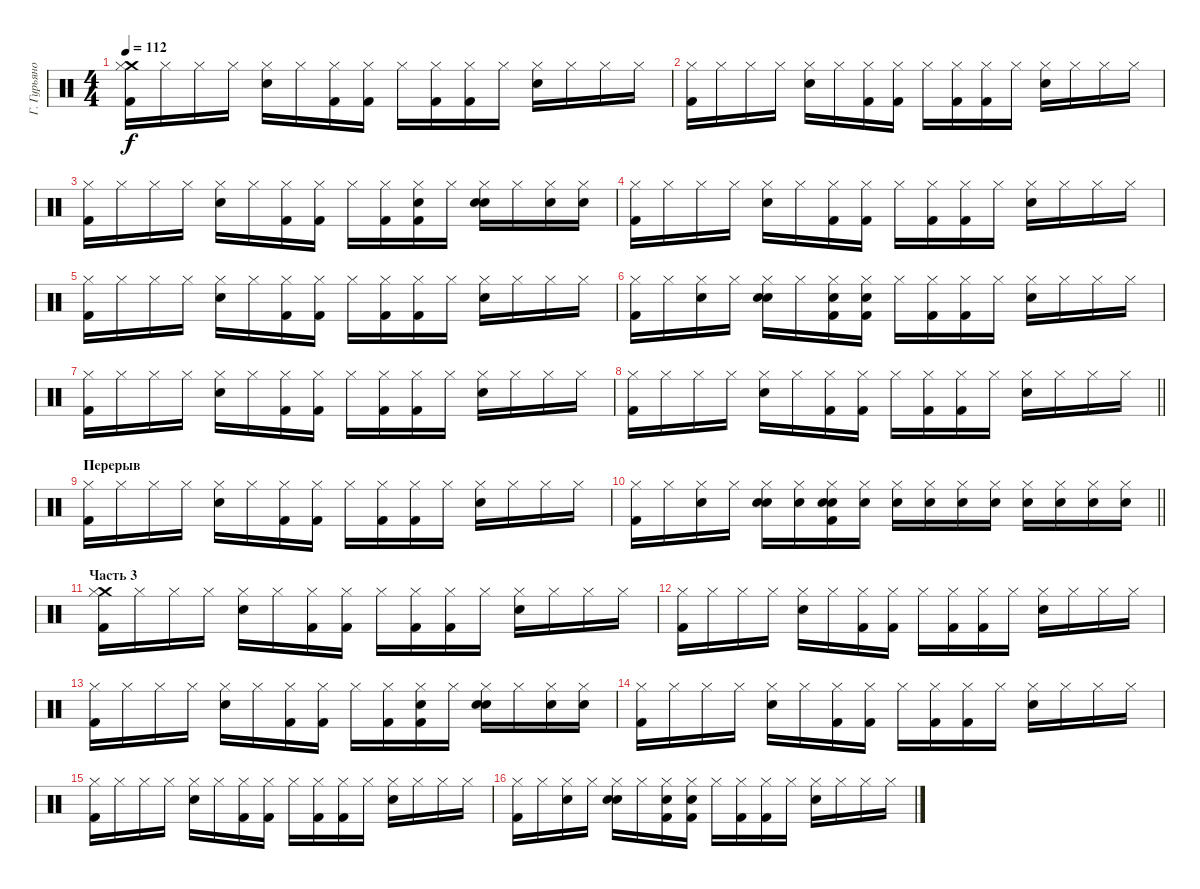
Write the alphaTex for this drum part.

\track ("Г. Гурьянов" "Г. Гурьяно") {instrument percussion}
\staff {score}
\articulation defaults
\ts (4 4)
\tempo 112
\clef neutral
\ks c
("Kick (hit) 2" "Crash medium (hit)" "Hi-Hat (closed)").16{dy f} "Hi-Hat (closed)".16 "Hi-Hat (closed)".16 "Hi-Hat (closed)".16 ("Snare (hit) 2" "Hi-Hat (closed)").16 "Hi-Hat (closed)".16 ("Kick (hit) 2" "Hi-Hat (closed)").16 ("Kick (hit) 2" "Hi-Hat (closed)").16 "Hi-Hat (closed)".16 ("Kick (hit) 2" "Hi-Hat (closed)").16 ("Kick (hit) 2" "Hi-Hat (closed)").16 "Hi-Hat (closed)".16 ("Snare (hit) 2" "Hi-Hat (closed)").16 "Hi-Hat (closed)".16 "Hi-Hat (closed)".16 "Hi-Hat (closed)".16 |
("Kick (hit) 2" "Hi-Hat (closed)").16 "Hi-Hat (closed)".16 "Hi-Hat (closed)".16 "Hi-Hat (closed)".16 ("Snare (hit) 2" "Hi-Hat (closed)").16 "Hi-Hat (closed)".16 ("Kick (hit) 2" "Hi-Hat (closed)").16 ("Kick (hit) 2" "Hi-Hat (closed)").16 "Hi-Hat (closed)".16 ("Kick (hit) 2" "Hi-Hat (closed)").16 ("Kick (hit) 2" "Hi-Hat (closed)").16 "Hi-Hat (closed)".16 ("Snare (hit) 2" "Hi-Hat (closed)").16 "Hi-Hat (closed)".16 "Hi-Hat (closed)".16 "Hi-Hat (closed)".16 |
("Kick (hit) 2" "Hi-Hat (closed)").16 "Hi-Hat (closed)".16 "Hi-Hat (closed)".16 "Hi-Hat (closed)".16 ("Snare (hit) 2" "Hi-Hat (closed)").16 "Hi-Hat (closed)".16 ("Kick (hit) 2" "Hi-Hat (closed)").16 ("Kick (hit) 2" "Hi-Hat (closed)").16 "Hi-Hat (closed)".16 ("Kick (hit) 2" "Hi-Hat (closed)").16 ("Kick (hit) 2" "Hand Clap (hit)" "Hi-Hat (closed)").16 "Hi-Hat (closed)".16 ("Snare (hit) 2" "Hand Clap (hit)" "Hi-Hat (closed)").16 "Hi-Hat (closed)".16 ("Hand Clap (hit)" "Hi-Hat (closed)").16 ("Hand Clap (hit)" "Hi-Hat (closed)").16 |
("Kick (hit) 2" "Hi-Hat (closed)").16 "Hi-Hat (closed)".16 "Hi-Hat (closed)".16 "Hi-Hat (closed)".16 ("Snare (hit) 2" "Hi-Hat (closed)").16 "Hi-Hat (closed)".16 ("Kick (hit) 2" "Hi-Hat (closed)").16 ("Kick (hit) 2" "Hi-Hat (closed)").16 "Hi-Hat (closed)".16 ("Kick (hit) 2" "Hi-Hat (closed)").16 ("Kick (hit) 2" "Hi-Hat (closed)").16 "Hi-Hat (closed)".16 ("Snare (hit) 2" "Hi-Hat (closed)").16 "Hi-Hat (closed)".16 "Hi-Hat (closed)".16 "Hi-Hat (closed)".16 |
("Kick (hit) 2" "Hi-Hat (closed)").16 "Hi-Hat (closed)".16 "Hi-Hat (closed)".16 "Hi-Hat (closed)".16 ("Snare (hit) 2" "Hi-Hat (closed)").16 "Hi-Hat (closed)".16 ("Kick (hit) 2" "Hi-Hat (closed)").16 ("Kick (hit) 2" "Hi-Hat (closed)").16 "Hi-Hat (closed)".16 ("Kick (hit) 2" "Hi-Hat (closed)").16 ("Kick (hit) 2" "Hi-Hat (closed)").16 "Hi-Hat (closed)".16 ("Snare (hit) 2" "Hi-Hat (closed)").16 "Hi-Hat (closed)".16 "Hi-Hat (closed)".16 "Hi-Hat (closed)".16 |
("Kick (hit) 2" "Hi-Hat (closed)").16 "Hi-Hat (closed)".16 ("Hand Clap (hit)" "Hi-Hat (closed)").16 "Hi-Hat (closed)".16 ("Snare (hit) 2" "Hand Clap (hit)" "Hi-Hat (closed)").16 "Hi-Hat (closed)".16 ("Kick (hit) 2" "Hand Clap (hit)" "Hi-Hat (closed)").16 ("Kick (hit) 2" "Hand Clap (hit)" "Hi-Hat (closed)").16 "Hi-Hat (closed)".16 ("Kick (hit) 2" "Hi-Hat (closed)").16 ("Kick (hit) 2" "Hi-Hat (closed)").16 "Hi-Hat (closed)".16 ("Snare (hit) 2" "Hi-Hat (closed)").16 "Hi-Hat (closed)".16 "Hi-Hat (closed)".16 "Hi-Hat (closed)".16 |
("Kick (hit) 2" "Hi-Hat (closed)").16 "Hi-Hat (closed)".16 "Hi-Hat (closed)".16 "Hi-Hat (closed)".16 ("Snare (hit) 2" "Hi-Hat (closed)").16 "Hi-Hat (closed)".16 ("Kick (hit) 2" "Hi-Hat (closed)").16 ("Kick (hit) 2" "Hi-Hat (closed)").16 "Hi-Hat (closed)".16 ("Kick (hit) 2" "Hi-Hat (closed)").16 ("Kick (hit) 2" "Hi-Hat (closed)").16 "Hi-Hat (closed)".16 ("Snare (hit) 2" "Hi-Hat (closed)").16 "Hi-Hat (closed)".16 "Hi-Hat (closed)".16 "Hi-Hat (closed)".16 |
\barLineRight lightlight
("Kick (hit) 2" "Hi-Hat (closed)").16 "Hi-Hat (closed)".16 "Hi-Hat (closed)".16 "Hi-Hat (closed)".16 ("Snare (hit) 2" "Hi-Hat (closed)").16 "Hi-Hat (closed)".16 ("Kick (hit) 2" "Hi-Hat (closed)").16 ("Kick (hit) 2" "Hi-Hat (closed)").16 "Hi-Hat (closed)".16 ("Kick (hit) 2" "Hi-Hat (closed)").16 ("Kick (hit) 2" "Hi-Hat (closed)").16 "Hi-Hat (closed)".16 ("Snare (hit) 2" "Hi-Hat (closed)").16 "Hi-Hat (closed)".16 "Hi-Hat (closed)".16 "Hi-Hat (closed)".16 |
\section ("" "Перерыв")
("Kick (hit) 2" "Hi-Hat (closed)").16 "Hi-Hat (closed)".16 "Hi-Hat (closed)".16 "Hi-Hat (closed)".16 ("Snare (hit) 2" "Hi-Hat (closed)").16 "Hi-Hat (closed)".16 ("Kick (hit) 2" "Hi-Hat (closed)").16 ("Kick (hit) 2" "Hi-Hat (closed)").16 "Hi-Hat (closed)".16 ("Kick (hit) 2" "Hi-Hat (closed)").16 ("Kick (hit) 2" "Hi-Hat (closed)").16 "Hi-Hat (closed)".16 ("Snare (hit) 2" "Hi-Hat (closed)").16 "Hi-Hat (closed)".16 "Hi-Hat (closed)".16 "Hi-Hat (closed)".16 |
\barLineRight lightlight
("Kick (hit) 2" "Hi-Hat (closed)").16 "Hi-Hat (closed)".16 ("Hand Clap (hit)" "Hi-Hat (closed)").16 "Hi-Hat (closed)".16 ("Snare (hit) 2" "Hand Clap (hit)" "Hi-Hat (closed)").16 ("Snare (hit) 2" "Hi-Hat (closed)").16 ("Kick (hit) 2" "Snare (hit) 2" "Hand Clap (hit)" "Hi-Hat (closed)").16 ("Hand Clap (hit)" "Hi-Hat (closed)").16 ("Snare (hit) 2" "Hi-Hat (closed)").16 ("Snare (hit) 2" "Hi-Hat (closed)").16 ("Snare (hit) 2" "Hi-Hat (closed)").16 ("Snare (hit) 2" "Hi-Hat (closed)").16 ("Snare (hit) 2" "Hi-Hat (closed)").16 ("Snare (hit) 2" "Hi-Hat (closed)").16 ("Snare (hit) 2" "Hi-Hat (closed)").16 ("Snare (hit) 2" "Hi-Hat (closed)").16 |
\section ("" "Часть 3")
("Kick (hit) 2" "Crash medium (hit)" "Hi-Hat (closed)").16 "Hi-Hat (closed)".16 "Hi-Hat (closed)".16 "Hi-Hat (closed)".16 ("Snare (hit) 2" "Hi-Hat (closed)").16 "Hi-Hat (closed)".16 ("Kick (hit) 2" "Hi-Hat (closed)").16 ("Kick (hit) 2" "Hi-Hat (closed)").16 "Hi-Hat (closed)".16 ("Kick (hit) 2" "Hi-Hat (closed)").16 ("Kick (hit) 2" "Hi-Hat (closed)").16 "Hi-Hat (closed)".16 ("Snare (hit) 2" "Hi-Hat (closed)").16 "Hi-Hat (closed)".16 "Hi-Hat (closed)".16 "Hi-Hat (closed)".16 |
("Kick (hit) 2" "Hi-Hat (closed)").16 "Hi-Hat (closed)".16 "Hi-Hat (closed)".16 "Hi-Hat (closed)".16 ("Snare (hit) 2" "Hi-Hat (closed)").16 "Hi-Hat (closed)".16 ("Kick (hit) 2" "Hi-Hat (closed)").16 ("Kick (hit) 2" "Hi-Hat (closed)").16 "Hi-Hat (closed)".16 ("Kick (hit) 2" "Hi-Hat (closed)").16 ("Kick (hit) 2" "Hi-Hat (closed)").16 "Hi-Hat (closed)".16 ("Snare (hit) 2" "Hi-Hat (closed)").16 "Hi-Hat (closed)".16 "Hi-Hat (closed)".16 "Hi-Hat (closed)".16 |
("Kick (hit) 2" "Hi-Hat (closed)").16 "Hi-Hat (closed)".16 "Hi-Hat (closed)".16 "Hi-Hat (closed)".16 ("Snare (hit) 2" "Hi-Hat (closed)").16 "Hi-Hat (closed)".16 ("Kick (hit) 2" "Hi-Hat (closed)").16 ("Kick (hit) 2" "Hi-Hat (closed)").16 "Hi-Hat (closed)".16 ("Kick (hit) 2" "Hi-Hat (closed)").16 ("Kick (hit) 2" "Hand Clap (hit)" "Hi-Hat (closed)").16 "Hi-Hat (closed)".16 ("Snare (hit) 2" "Hand Clap (hit)" "Hi-Hat (closed)").16 "Hi-Hat (closed)".16 ("Hand Clap (hit)" "Hi-Hat (closed)").16 ("Hand Clap (hit)" "Hi-Hat (closed)").16 |
("Kick (hit) 2" "Hi-Hat (closed)").16 "Hi-Hat (closed)".16 "Hi-Hat (closed)".16 "Hi-Hat (closed)".16 ("Snare (hit) 2" "Hi-Hat (closed)").16 "Hi-Hat (closed)".16 ("Kick (hit) 2" "Hi-Hat (closed)").16 ("Kick (hit) 2" "Hi-Hat (closed)").16 "Hi-Hat (closed)".16 ("Kick (hit) 2" "Hi-Hat (closed)").16 ("Kick (hit) 2" "Hi-Hat (closed)").16 "Hi-Hat (closed)".16 ("Snare (hit) 2" "Hi-Hat (closed)").16 "Hi-Hat (closed)".16 "Hi-Hat (closed)".16 "Hi-Hat (closed)".16 |
("Kick (hit) 2" "Hi-Hat (closed)").16 "Hi-Hat (closed)".16 "Hi-Hat (closed)".16 "Hi-Hat (closed)".16 ("Snare (hit) 2" "Hi-Hat (closed)").16 "Hi-Hat (closed)".16 ("Kick (hit) 2" "Hi-Hat (closed)").16 ("Kick (hit) 2" "Hi-Hat (closed)").16 "Hi-Hat (closed)".16 ("Kick (hit) 2" "Hi-Hat (closed)").16 ("Kick (hit) 2" "Hi-Hat (closed)").16 "Hi-Hat (closed)".16 ("Snare (hit) 2" "Hi-Hat (closed)").16 "Hi-Hat (closed)".16 "Hi-Hat (closed)".16 "Hi-Hat (closed)".16 |
("Kick (hit) 2" "Hi-Hat (closed)").16 "Hi-Hat (closed)".16 ("Hand Clap (hit)" "Hi-Hat (closed)").16 "Hi-Hat (closed)".16 ("Snare (hit) 2" "Hand Clap (hit)" "Hi-Hat (closed)").16 "Hi-Hat (closed)".16 ("Kick (hit) 2" "Hand Clap (hit)" "Hi-Hat (closed)").16 ("Kick (hit) 2" "Hand Clap (hit)" "Hi-Hat (closed)").16 "Hi-Hat (closed)".16 ("Kick (hit) 2" "Hi-Hat (closed)").16 ("Kick (hit) 2" "Hi-Hat (closed)").16 "Hi-Hat (closed)".16 ("Snare (hit) 2" "Hi-Hat (closed)").16 "Hi-Hat (closed)".16 "Hi-Hat (closed)".16 "Hi-Hat (closed)".16
